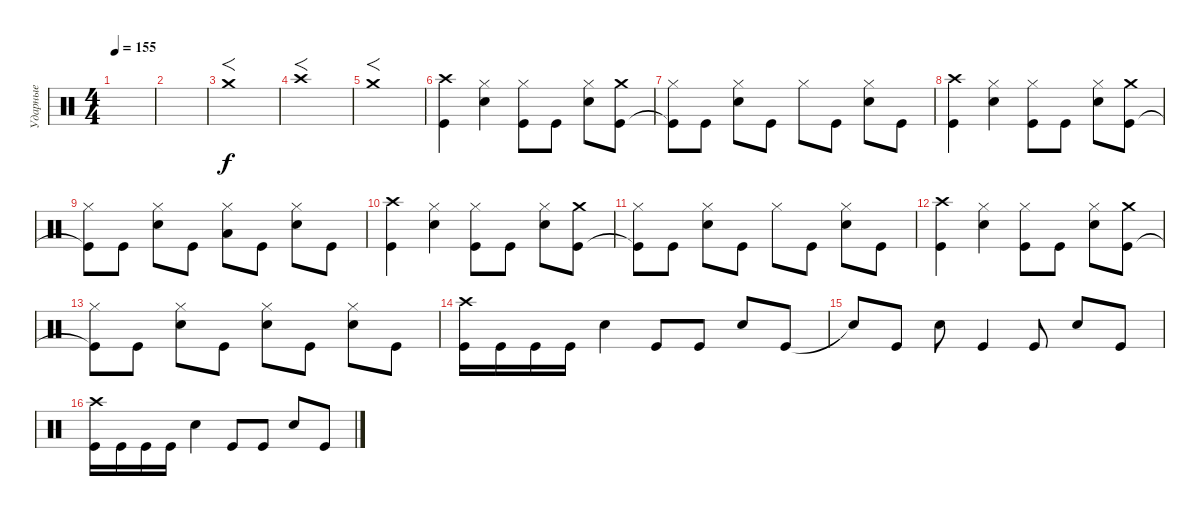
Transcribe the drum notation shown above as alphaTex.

\track ("Ударные" "Ударные") {instrument percussion}
\staff {score}
\articulation defaults
\ts (4 4)
\tempo 155
\clef neutral
\ks c
|
|
"Crash medium (hit)".1{f} |
"Crash high (hit)".1{f} |
"Crash medium (hit)".1{f} |
("Crash high (hit)" "Kick (hit)").4 ("Hi-Hat (closed)" "Electric Snare (hit)").4 ("Hi-Hat (closed)" "Kick (hit)").8 "Kick (hit)".8 ("Hi-Hat (closed)" "Electric Snare (hit)").8 ("Crash medium (hit)" "Kick (hit)").8 |
("Hi-Hat (closed)" "Kick (hit)"{t}).8 "Kick (hit)".8 ("Hi-Hat (closed)" "Electric Snare (hit)").8 "Kick (hit)".8 "Hi-Hat (closed)".8 "Kick (hit)".8 ("Hi-Hat (closed)" "Electric Snare (hit)").8 "Kick (hit)".8 |
("Crash high (hit)" "Kick (hit)").4 ("Hi-Hat (closed)" "Electric Snare (hit)").4 ("Hi-Hat (closed)" "Kick (hit)").8 "Kick (hit)".8 ("Hi-Hat (closed)" "Electric Snare (hit)").8 ("Crash medium (hit)" "Kick (hit)").8 |
("Hi-Hat (closed)" "Kick (hit)"{t}).8 "Kick (hit)".8 ("Hi-Hat (closed)" "Electric Snare (hit)").8 "Kick (hit)".8 ("Hi-Hat (closed)" "Low Tom (hit)").8 "Kick (hit)".8 ("Hi-Hat (closed)" "Electric Snare (hit)").8 "Kick (hit)".8 |
("Crash high (hit)" "Kick (hit)").4 ("Hi-Hat (closed)" "Electric Snare (hit)").4 ("Hi-Hat (closed)" "Kick (hit)").8 "Kick (hit)".8 ("Hi-Hat (closed)" "Electric Snare (hit)").8 ("Crash medium (hit)" "Kick (hit)").8 |
("Hi-Hat (closed)" "Kick (hit)"{t}).8 "Kick (hit)".8 ("Hi-Hat (closed)" "Electric Snare (hit)").8 "Kick (hit)".8 "Hi-Hat (closed)".8 "Kick (hit)".8 ("Hi-Hat (closed)" "Electric Snare (hit)").8 "Kick (hit)".8 |
("Crash high (hit)" "Kick (hit)").4 ("Hi-Hat (closed)" "Electric Snare (hit)").4 ("Hi-Hat (closed)" "Kick (hit)").8 "Kick (hit)".8 ("Hi-Hat (closed)" "Electric Snare (hit)").8 ("Crash medium (hit)" "Kick (hit)").8 |
("Hi-Hat (closed)" "Kick (hit)"{t}).8 "Kick (hit)".8 ("Hi-Hat (closed)" "Electric Snare (hit)").8 "Kick (hit)".8 ("Hi-Hat (closed)" "Electric Snare (hit)").8 "Kick (hit)".8 ("Hi-Hat (closed)" "Electric Snare (hit)").8 "Kick (hit)".8 |
("Crash high (hit)" "Kick (hit)").16 "Kick (hit)".16 "Kick (hit)".16 "Kick (hit)".16 "Electric Snare (hit)".4 "Kick (hit)".8 "Kick (hit)".8 "Electric Snare (hit)".8 "Kick (hit)".8 |
"Snare (hit)"{t}.8 "Kick (hit)".8 "Electric Snare (hit)".8 "Kick (hit)".4 "Kick (hit)".8 "Electric Snare (hit)".8 "Kick (hit)".8 |
("Crash high (hit)" "Kick (hit)").16 "Kick (hit)".16 "Kick (hit)".16 "Kick (hit)".16 "Electric Snare (hit)".4 "Kick (hit)".8 "Kick (hit)".8 "Electric Snare (hit)".8 "Kick (hit)".8
